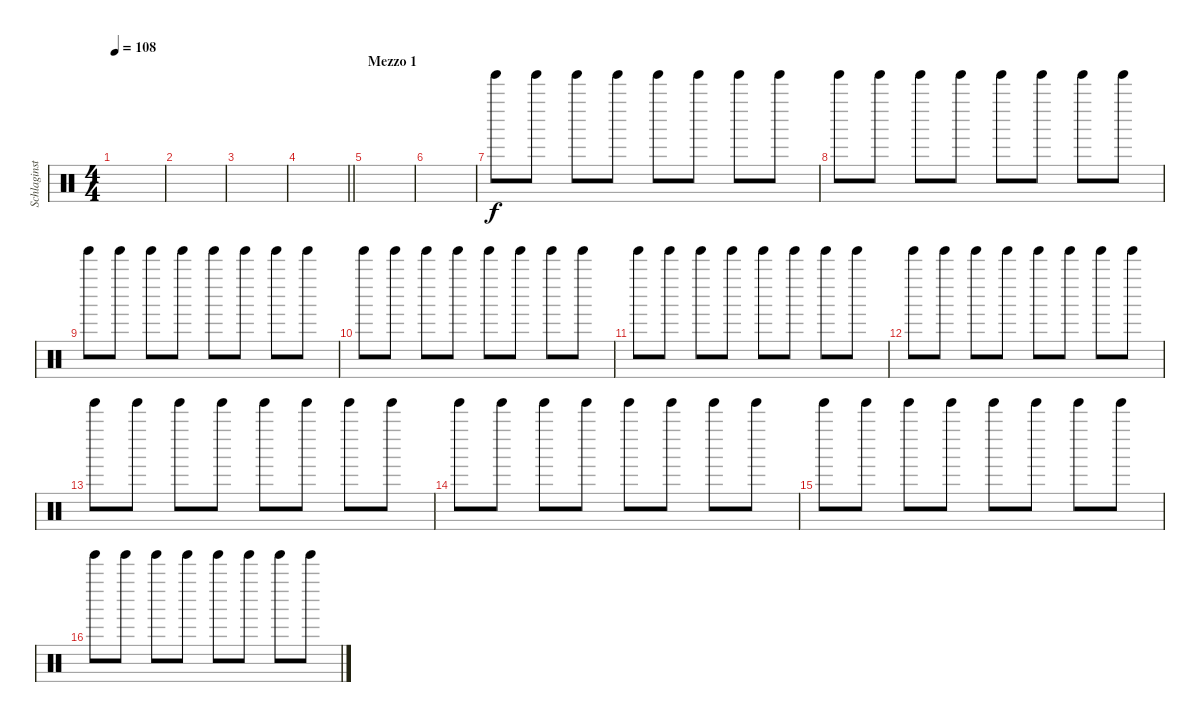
\track ("Schlaginstrumente - Auswahl" "Schlaginst") {instrument percussion}
\staff {score}
\articulation defaults
\ts (4 4)
\tempo 108
\clef neutral
\ks c
|
|
|
\barLineRight lightlight
|
\section ("" "Mezzo 1")
|
|
"Tinkle Bell (hit)".8 "Tinkle Bell (hit)".8 "Tinkle Bell (hit)".8 "Tinkle Bell (hit)".8 "Tinkle Bell (hit)".8 "Tinkle Bell (hit)".8 "Tinkle Bell (hit)".8 "Tinkle Bell (hit)".8 |
"Tinkle Bell (hit)".8 "Tinkle Bell (hit)".8 "Tinkle Bell (hit)".8 "Tinkle Bell (hit)".8 "Tinkle Bell (hit)".8 "Tinkle Bell (hit)".8 "Tinkle Bell (hit)".8 "Tinkle Bell (hit)".8 |
"Tinkle Bell (hit)".8 "Tinkle Bell (hit)".8 "Tinkle Bell (hit)".8 "Tinkle Bell (hit)".8 "Tinkle Bell (hit)".8 "Tinkle Bell (hit)".8 "Tinkle Bell (hit)".8 "Tinkle Bell (hit)".8 |
"Tinkle Bell (hit)".8 "Tinkle Bell (hit)".8 "Tinkle Bell (hit)".8 "Tinkle Bell (hit)".8 "Tinkle Bell (hit)".8 "Tinkle Bell (hit)".8 "Tinkle Bell (hit)".8 "Tinkle Bell (hit)".8 |
"Tinkle Bell (hit)".8 "Tinkle Bell (hit)".8 "Tinkle Bell (hit)".8 "Tinkle Bell (hit)".8 "Tinkle Bell (hit)".8 "Tinkle Bell (hit)".8 "Tinkle Bell (hit)".8 "Tinkle Bell (hit)".8 |
"Tinkle Bell (hit)".8 "Tinkle Bell (hit)".8 "Tinkle Bell (hit)".8 "Tinkle Bell (hit)".8 "Tinkle Bell (hit)".8 "Tinkle Bell (hit)".8 "Tinkle Bell (hit)".8 "Tinkle Bell (hit)".8 |
"Tinkle Bell (hit)".8 "Tinkle Bell (hit)".8 "Tinkle Bell (hit)".8 "Tinkle Bell (hit)".8 "Tinkle Bell (hit)".8 "Tinkle Bell (hit)".8 "Tinkle Bell (hit)".8 "Tinkle Bell (hit)".8 |
"Tinkle Bell (hit)".8 "Tinkle Bell (hit)".8 "Tinkle Bell (hit)".8 "Tinkle Bell (hit)".8 "Tinkle Bell (hit)".8 "Tinkle Bell (hit)".8 "Tinkle Bell (hit)".8 "Tinkle Bell (hit)".8 |
"Tinkle Bell (hit)".8 "Tinkle Bell (hit)".8 "Tinkle Bell (hit)".8 "Tinkle Bell (hit)".8 "Tinkle Bell (hit)".8 "Tinkle Bell (hit)".8 "Tinkle Bell (hit)".8 "Tinkle Bell (hit)".8 |
"Tinkle Bell (hit)".8 "Tinkle Bell (hit)".8 "Tinkle Bell (hit)".8 "Tinkle Bell (hit)".8 "Tinkle Bell (hit)".8 "Tinkle Bell (hit)".8 "Tinkle Bell (hit)".8 "Tinkle Bell (hit)".8
